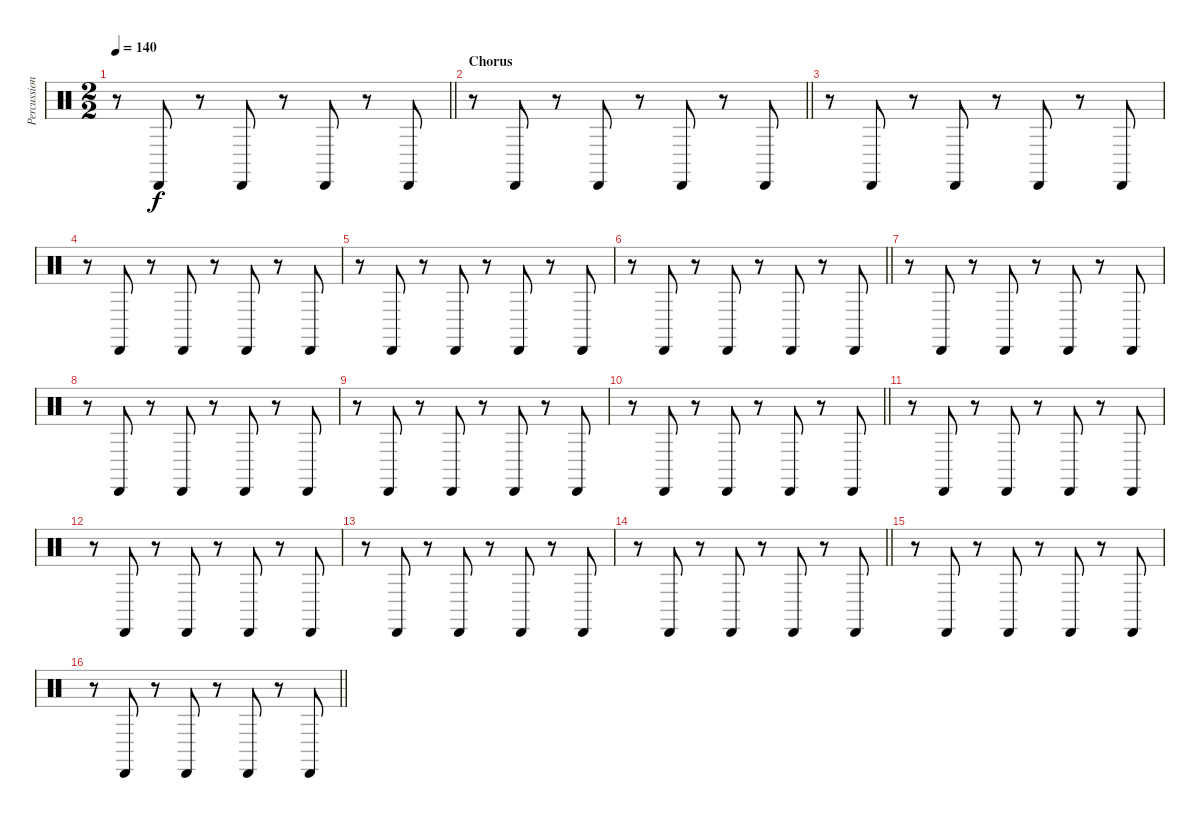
\track ("Percussion 2" "Percussion") {instrument percussion}
\staff {score}
\articulation defaults
\ts (2 2)
\tempo 140
\clef neutral
\barLineRight lightlight
\ks c
r.8{dy f} "Cabasa (hit)".8 r.8 "Cabasa (hit)".8 r.8 "Cabasa (hit)".8 r.8 "Cabasa (hit)".8 |
\section ("" "Chorus")
\barLineRight lightlight
r.8 "Cabasa (hit)".8 r.8 "Cabasa (hit)".8 r.8 "Cabasa (hit)".8 r.8 "Cabasa (hit)".8 |
r.8 "Cabasa (hit)".8 r.8 "Cabasa (hit)".8 r.8 "Cabasa (hit)".8 r.8 "Cabasa (hit)".8 |
r.8 "Cabasa (hit)".8 r.8 "Cabasa (hit)".8 r.8 "Cabasa (hit)".8 r.8 "Cabasa (hit)".8 |
r.8 "Cabasa (hit)".8 r.8 "Cabasa (hit)".8 r.8 "Cabasa (hit)".8 r.8 "Cabasa (hit)".8 |
\barLineRight lightlight
r.8 "Cabasa (hit)".8 r.8 "Cabasa (hit)".8 r.8 "Cabasa (hit)".8 r.8 "Cabasa (hit)".8 |
r.8 "Cabasa (hit)".8 r.8 "Cabasa (hit)".8 r.8 "Cabasa (hit)".8 r.8 "Cabasa (hit)".8 |
r.8 "Cabasa (hit)".8 r.8 "Cabasa (hit)".8 r.8 "Cabasa (hit)".8 r.8 "Cabasa (hit)".8 |
r.8 "Cabasa (hit)".8 r.8 "Cabasa (hit)".8 r.8 "Cabasa (hit)".8 r.8 "Cabasa (hit)".8 |
\barLineRight lightlight
r.8 "Cabasa (hit)".8 r.8 "Cabasa (hit)".8 r.8 "Cabasa (hit)".8 r.8 "Cabasa (hit)".8 |
r.8 "Cabasa (hit)".8 r.8 "Cabasa (hit)".8 r.8 "Cabasa (hit)".8 r.8 "Cabasa (hit)".8 |
r.8 "Cabasa (hit)".8 r.8 "Cabasa (hit)".8 r.8 "Cabasa (hit)".8 r.8 "Cabasa (hit)".8 |
r.8 "Cabasa (hit)".8 r.8 "Cabasa (hit)".8 r.8 "Cabasa (hit)".8 r.8 "Cabasa (hit)".8 |
\barLineRight lightlight
r.8 "Cabasa (hit)".8 r.8 "Cabasa (hit)".8 r.8 "Cabasa (hit)".8 r.8 "Cabasa (hit)".8 |
r.8 "Cabasa (hit)".8 r.8 "Cabasa (hit)".8 r.8 "Cabasa (hit)".8 r.8 "Cabasa (hit)".8 |
\barLineRight lightlight
r.8 "Cabasa (hit)".8 r.8 "Cabasa (hit)".8 r.8 "Cabasa (hit)".8 r.8 "Cabasa (hit)".8
